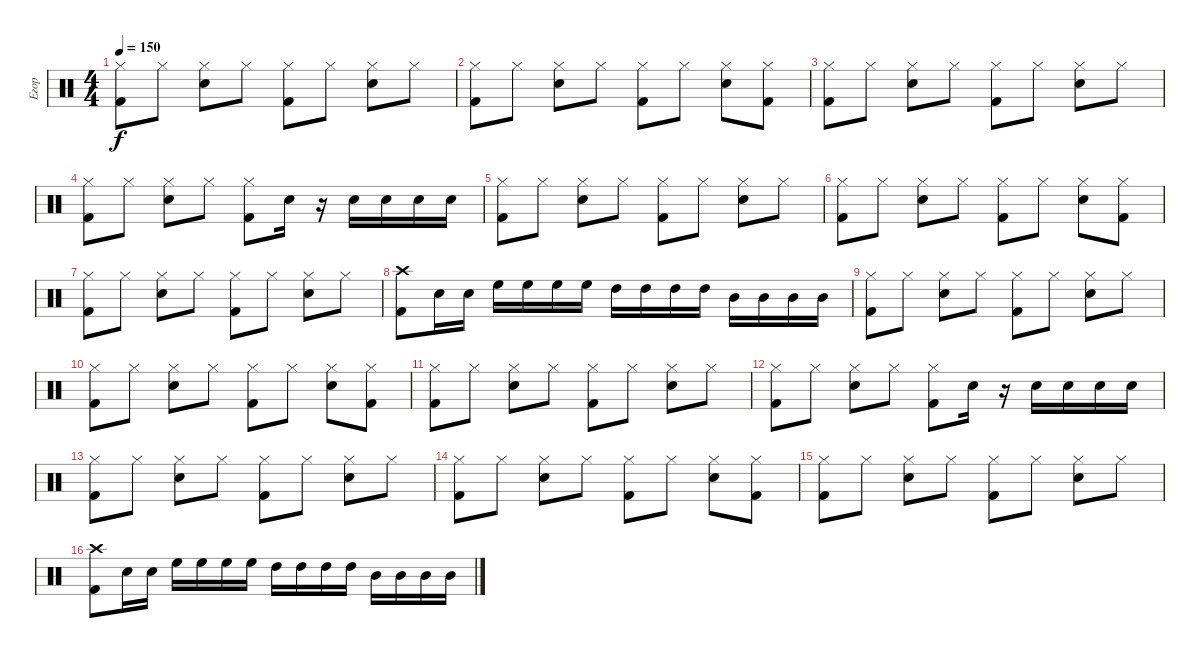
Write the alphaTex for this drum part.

\track ("Егор" "Егор") {instrument percussion}
\staff {score}
\articulation defaults
\ts (4 4)
\tempo 150
\clef neutral
\ks c
("Hi-Hat (closed)" "Kick (hit) 2").8{dy f} "Hi-Hat (closed)".8 ("Hi-Hat (closed)" "Snare (hit) 2").8 "Hi-Hat (closed)".8 ("Hi-Hat (closed)" "Kick (hit) 2").8 "Hi-Hat (closed)".8 ("Hi-Hat (closed)" "Snare (hit) 2").8 "Hi-Hat (closed)".8 |
("Hi-Hat (closed)" "Kick (hit) 2").8 "Hi-Hat (closed)".8 ("Hi-Hat (closed)" "Snare (hit) 2").8 "Hi-Hat (closed)".8 ("Hi-Hat (closed)" "Kick (hit) 2").8 "Hi-Hat (closed)".8 ("Hi-Hat (closed)" "Snare (hit) 2").8 ("Hi-Hat (closed)" "Kick (hit) 2").8 |
("Hi-Hat (closed)" "Kick (hit) 2").8 "Hi-Hat (closed)".8 ("Hi-Hat (closed)" "Snare (hit) 2").8 "Hi-Hat (closed)".8 ("Hi-Hat (closed)" "Kick (hit) 2").8 "Hi-Hat (closed)".8 ("Hi-Hat (closed)" "Snare (hit) 2").8 "Hi-Hat (closed)".8 |
("Hi-Hat (closed)" "Kick (hit) 2").8 "Hi-Hat (closed)".8 ("Hi-Hat (closed)" "Snare (hit) 2").8 "Hi-Hat (closed)".8 ("Hi-Hat (closed)" "Kick (hit) 2").8 "Snare (hit) 2".16 r.16 "Snare (hit) 2".16 "Snare (hit) 2".16 "Snare (hit) 2".16 "Snare (hit) 2".16 |
("Hi-Hat (closed)" "Kick (hit) 2").8 "Hi-Hat (closed)".8 ("Hi-Hat (closed)" "Snare (hit) 2").8 "Hi-Hat (closed)".8 ("Hi-Hat (closed)" "Kick (hit) 2").8 "Hi-Hat (closed)".8 ("Hi-Hat (closed)" "Snare (hit) 2").8 "Hi-Hat (closed)".8 |
("Hi-Hat (closed)" "Kick (hit) 2").8 "Hi-Hat (closed)".8 ("Hi-Hat (closed)" "Snare (hit) 2").8 "Hi-Hat (closed)".8 ("Hi-Hat (closed)" "Kick (hit) 2").8 "Hi-Hat (closed)".8 ("Hi-Hat (closed)" "Snare (hit) 2").8 ("Hi-Hat (closed)" "Kick (hit) 2").8 |
("Hi-Hat (closed)" "Kick (hit) 2").8 "Hi-Hat (closed)".8 ("Hi-Hat (closed)" "Snare (hit) 2").8 "Hi-Hat (closed)".8 ("Hi-Hat (closed)" "Kick (hit) 2").8 "Hi-Hat (closed)".8 ("Hi-Hat (closed)" "Snare (hit) 2").8 "Hi-Hat (closed)".8 |
("Crash high (hit)" "Kick (hit) 2").8 "Snare (hit) 2".16 "Snare (hit) 2".16 "High Floor Tom (hit)".16 "High Floor Tom (hit)".16 "High Floor Tom (hit)".16 "High Floor Tom (hit)".16 "High Tom (hit)".16 "High Tom (hit)".16 "High Tom (hit)".16 "High Tom (hit)".16 "Mid Tom (hit)".16 "Mid Tom (hit)".16 "Mid Tom (hit)".16 "Mid Tom (hit)".16 |
("Hi-Hat (closed)" "Kick (hit) 2").8 "Hi-Hat (closed)".8 ("Hi-Hat (closed)" "Snare (hit) 2").8 "Hi-Hat (closed)".8 ("Hi-Hat (closed)" "Kick (hit) 2").8 "Hi-Hat (closed)".8 ("Hi-Hat (closed)" "Snare (hit) 2").8 "Hi-Hat (closed)".8 |
("Hi-Hat (closed)" "Kick (hit) 2").8 "Hi-Hat (closed)".8 ("Hi-Hat (closed)" "Snare (hit) 2").8 "Hi-Hat (closed)".8 ("Hi-Hat (closed)" "Kick (hit) 2").8 "Hi-Hat (closed)".8 ("Hi-Hat (closed)" "Snare (hit) 2").8 ("Hi-Hat (closed)" "Kick (hit) 2").8 |
("Hi-Hat (closed)" "Kick (hit) 2").8 "Hi-Hat (closed)".8 ("Hi-Hat (closed)" "Snare (hit) 2").8 "Hi-Hat (closed)".8 ("Hi-Hat (closed)" "Kick (hit) 2").8 "Hi-Hat (closed)".8 ("Hi-Hat (closed)" "Snare (hit) 2").8 "Hi-Hat (closed)".8 |
("Hi-Hat (closed)" "Kick (hit) 2").8 "Hi-Hat (closed)".8 ("Hi-Hat (closed)" "Snare (hit) 2").8 "Hi-Hat (closed)".8 ("Hi-Hat (closed)" "Kick (hit) 2").8 "Snare (hit) 2".16 r.16 "Snare (hit) 2".16 "Snare (hit) 2".16 "Snare (hit) 2".16 "Snare (hit) 2".16 |
("Hi-Hat (closed)" "Kick (hit) 2").8 "Hi-Hat (closed)".8 ("Hi-Hat (closed)" "Snare (hit) 2").8 "Hi-Hat (closed)".8 ("Hi-Hat (closed)" "Kick (hit) 2").8 "Hi-Hat (closed)".8 ("Hi-Hat (closed)" "Snare (hit) 2").8 "Hi-Hat (closed)".8 |
("Hi-Hat (closed)" "Kick (hit) 2").8 "Hi-Hat (closed)".8 ("Hi-Hat (closed)" "Snare (hit) 2").8 "Hi-Hat (closed)".8 ("Hi-Hat (closed)" "Kick (hit) 2").8 "Hi-Hat (closed)".8 ("Hi-Hat (closed)" "Snare (hit) 2").8 ("Hi-Hat (closed)" "Kick (hit) 2").8 |
("Hi-Hat (closed)" "Kick (hit) 2").8 "Hi-Hat (closed)".8 ("Hi-Hat (closed)" "Snare (hit) 2").8 "Hi-Hat (closed)".8 ("Hi-Hat (closed)" "Kick (hit) 2").8 "Hi-Hat (closed)".8 ("Hi-Hat (closed)" "Snare (hit) 2").8 "Hi-Hat (closed)".8 |
("Crash high (hit)" "Kick (hit) 2").8 "Snare (hit) 2".16 "Snare (hit) 2".16 "High Floor Tom (hit)".16 "High Floor Tom (hit)".16 "High Floor Tom (hit)".16 "High Floor Tom (hit)".16 "High Tom (hit)".16 "High Tom (hit)".16 "High Tom (hit)".16 "High Tom (hit)".16 "Mid Tom (hit)".16 "Mid Tom (hit)".16 "Mid Tom (hit)".16 "Mid Tom (hit)".16
